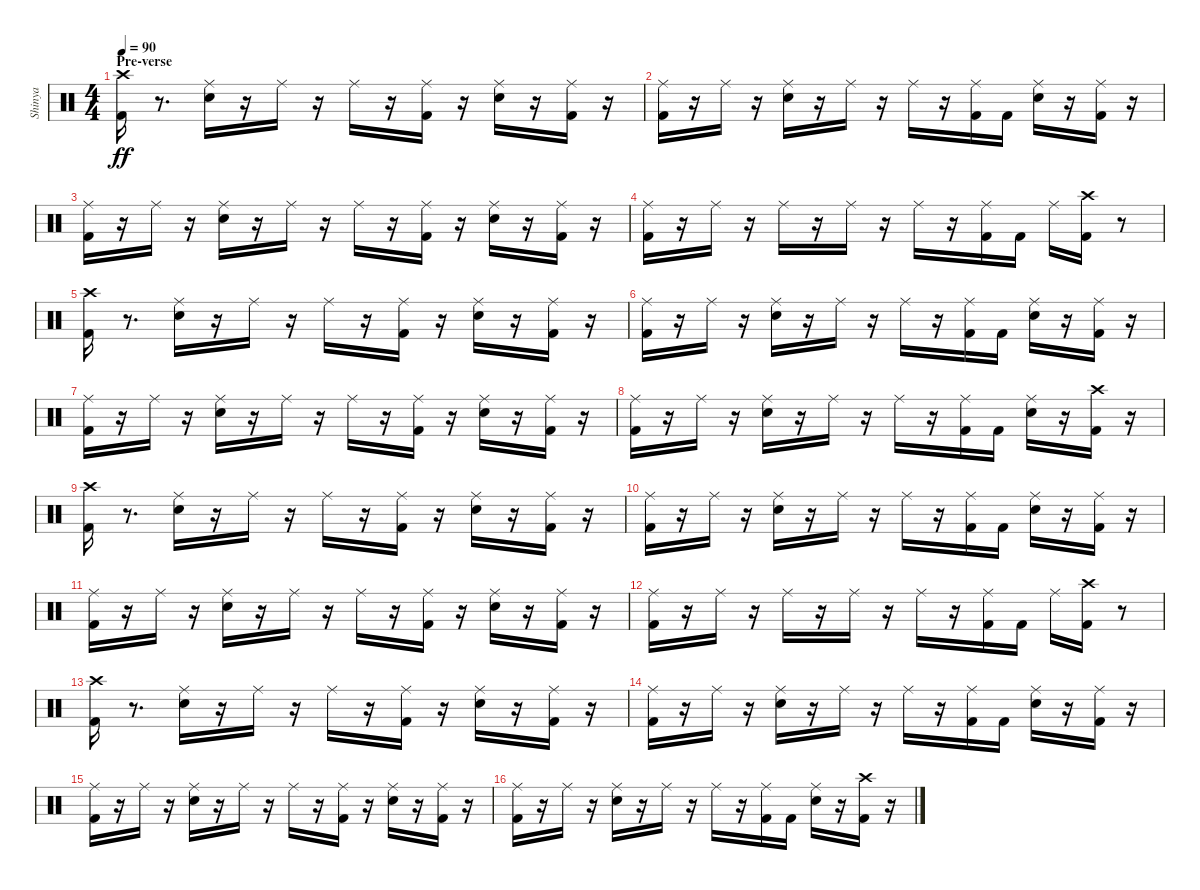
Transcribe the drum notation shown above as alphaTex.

\track ("Shinya" "Shinya") {instrument percussion}
\staff {score}
\articulation defaults
\ts (4 4)
\section ("" "Pre-verse")
\tempo 90
\clef neutral
\ks c
("Crash high (hit)" "Kick (hit) 2").16{dy ff} r.8{d} ("Snare (hit) 2" "Ride (middle)").16 r.16 "Ride (middle)".16 r.16 "Ride (middle)".16 r.16 ("Ride (middle)" "Kick (hit) 2").16 r.16 ("Snare (hit) 2" "Ride (middle)").16 r.16 ("Ride (middle)" "Kick (hit) 2").16 r.16 |
("Ride (middle)" "Kick (hit) 2").16 r.16 "Ride (middle)".16 r.16 ("Snare (hit) 2" "Ride (middle)").16 r.16 "Ride (middle)".16 r.16 "Ride (middle)".16 r.16 ("Ride (middle)" "Kick (hit) 2").16 "Kick (hit) 2".16 ("Snare (hit) 2" "Ride (middle)").16 r.16 ("Ride (middle)" "Kick (hit) 2").16 r.16 |
("Ride (middle)" "Kick (hit) 2").16 r.16 "Ride (middle)".16 r.16 ("Snare (hit) 2" "Ride (middle)").16 r.16 "Ride (middle)".16 r.16 "Ride (middle)".16 r.16 ("Ride (middle)" "Kick (hit) 2").16 r.16 ("Snare (hit) 2" "Ride (middle)").16 r.16 ("Ride (middle)" "Kick (hit) 2").16 r.16 |
("Ride (middle)" "Kick (hit) 2").16 r.16 "Ride (middle)".16 r.16 "Ride (middle)".16 r.16 "Ride (middle)".16 r.16 "Ride (middle)".16 r.16 ("Ride (middle)" "Kick (hit) 2").16 "Kick (hit) 2".16 "Ride (middle)".16 ("Crash high (hit)" "Kick (hit) 2").16 r.8 |
("Crash high (hit)" "Kick (hit) 2").16 r.8{d} ("Snare (hit) 2" "Ride (middle)").16 r.16 "Ride (middle)".16 r.16 "Ride (middle)".16 r.16 ("Kick (hit) 2" "Ride (middle)").16 r.16 ("Snare (hit) 2" "Ride (middle)").16 r.16 ("Ride (middle)" "Kick (hit) 2").16 r.16 |
("Ride (middle)" "Kick (hit) 2").16 r.16 "Ride (middle)".16 r.16 ("Snare (hit) 2" "Ride (middle)").16 r.16 "Ride (middle)".16 r.16 "Ride (middle)".16 r.16 ("Ride (middle)" "Kick (hit) 2").16 "Kick (hit) 2".16 ("Snare (hit) 2" "Ride (middle)").16 r.16 ("Ride (middle)" "Kick (hit) 2").16 r.16 |
("Ride (middle)" "Kick (hit) 2").16 r.16 "Ride (middle)".16 r.16 ("Snare (hit) 2" "Ride (middle)").16 r.16 "Ride (middle)".16 r.16 "Ride (middle)".16 r.16 ("Ride (middle)" "Kick (hit) 2").16 r.16 ("Snare (hit) 2" "Ride (middle)").16 r.16 ("Ride (middle)" "Kick (hit) 2").16 r.16 |
("Ride (middle)" "Kick (hit) 2").16 r.16 "Ride (middle)".16 r.16 ("Snare (hit) 2" "Ride (middle)").16 r.16 "Ride (middle)".16 r.16 "Ride (middle)".16 r.16 ("Ride (middle)" "Kick (hit) 2").16 "Kick (hit) 2".16 ("Snare (hit) 2" "Ride (middle)").16 r.16 ("Crash high (hit)" "Kick (hit) 2").16 r.16 |
("Crash high (hit)" "Kick (hit) 2").16 r.8{d} ("Snare (hit) 2" "Ride (middle)").16 r.16 "Ride (middle)".16 r.16 "Ride (middle)".16 r.16 ("Ride (middle)" "Kick (hit) 2").16 r.16 ("Snare (hit) 2" "Ride (middle)").16 r.16 ("Ride (middle)" "Kick (hit) 2").16 r.16 |
("Ride (middle)" "Kick (hit) 2").16 r.16 "Ride (middle)".16 r.16 ("Snare (hit) 2" "Ride (middle)").16 r.16 "Ride (middle)".16 r.16 "Ride (middle)".16 r.16 ("Ride (middle)" "Kick (hit) 2").16 "Kick (hit) 2".16 ("Snare (hit) 2" "Ride (middle)").16 r.16 ("Ride (middle)" "Kick (hit) 2").16 r.16 |
("Ride (middle)" "Kick (hit) 2").16 r.16 "Ride (middle)".16 r.16 ("Snare (hit) 2" "Ride (middle)").16 r.16 "Ride (middle)".16 r.16 "Ride (middle)".16 r.16 ("Ride (middle)" "Kick (hit) 2").16 r.16 ("Snare (hit) 2" "Ride (middle)").16 r.16 ("Ride (middle)" "Kick (hit) 2").16 r.16 |
("Ride (middle)" "Kick (hit) 2").16 r.16 "Ride (middle)".16 r.16 "Ride (middle)".16 r.16 "Ride (middle)".16 r.16 "Ride (middle)".16 r.16 ("Ride (middle)" "Kick (hit) 2").16 "Kick (hit) 2".16 "Ride (middle)".16 ("Crash high (hit)" "Kick (hit) 2").16 r.8 |
("Crash high (hit)" "Kick (hit) 2").16 r.8{d} ("Snare (hit) 2" "Ride (middle)").16 r.16 "Ride (middle)".16 r.16 "Ride (middle)".16 r.16 ("Kick (hit) 2" "Ride (middle)").16 r.16 ("Snare (hit) 2" "Ride (middle)").16 r.16 ("Ride (middle)" "Kick (hit) 2").16 r.16 |
("Ride (middle)" "Kick (hit) 2").16 r.16 "Ride (middle)".16 r.16 ("Snare (hit) 2" "Ride (middle)").16 r.16 "Ride (middle)".16 r.16 "Ride (middle)".16 r.16 ("Ride (middle)" "Kick (hit) 2").16 "Kick (hit) 2".16 ("Snare (hit) 2" "Ride (middle)").16 r.16 ("Ride (middle)" "Kick (hit) 2").16 r.16 |
("Ride (middle)" "Kick (hit) 2").16 r.16 "Ride (middle)".16 r.16 ("Snare (hit) 2" "Ride (middle)").16 r.16 "Ride (middle)".16 r.16 "Ride (middle)".16 r.16 ("Ride (middle)" "Kick (hit) 2").16 r.16 ("Snare (hit) 2" "Ride (middle)").16 r.16 ("Ride (middle)" "Kick (hit) 2").16 r.16 |
("Ride (middle)" "Kick (hit) 2").16 r.16 "Ride (middle)".16 r.16 ("Snare (hit) 2" "Ride (middle)").16 r.16 "Ride (middle)".16 r.16 "Ride (middle)".16 r.16 ("Ride (middle)" "Kick (hit) 2").16 "Kick (hit) 2".16 ("Snare (hit) 2" "Ride (middle)").16 r.16 ("Crash high (hit)" "Kick (hit) 2").16 r.16
